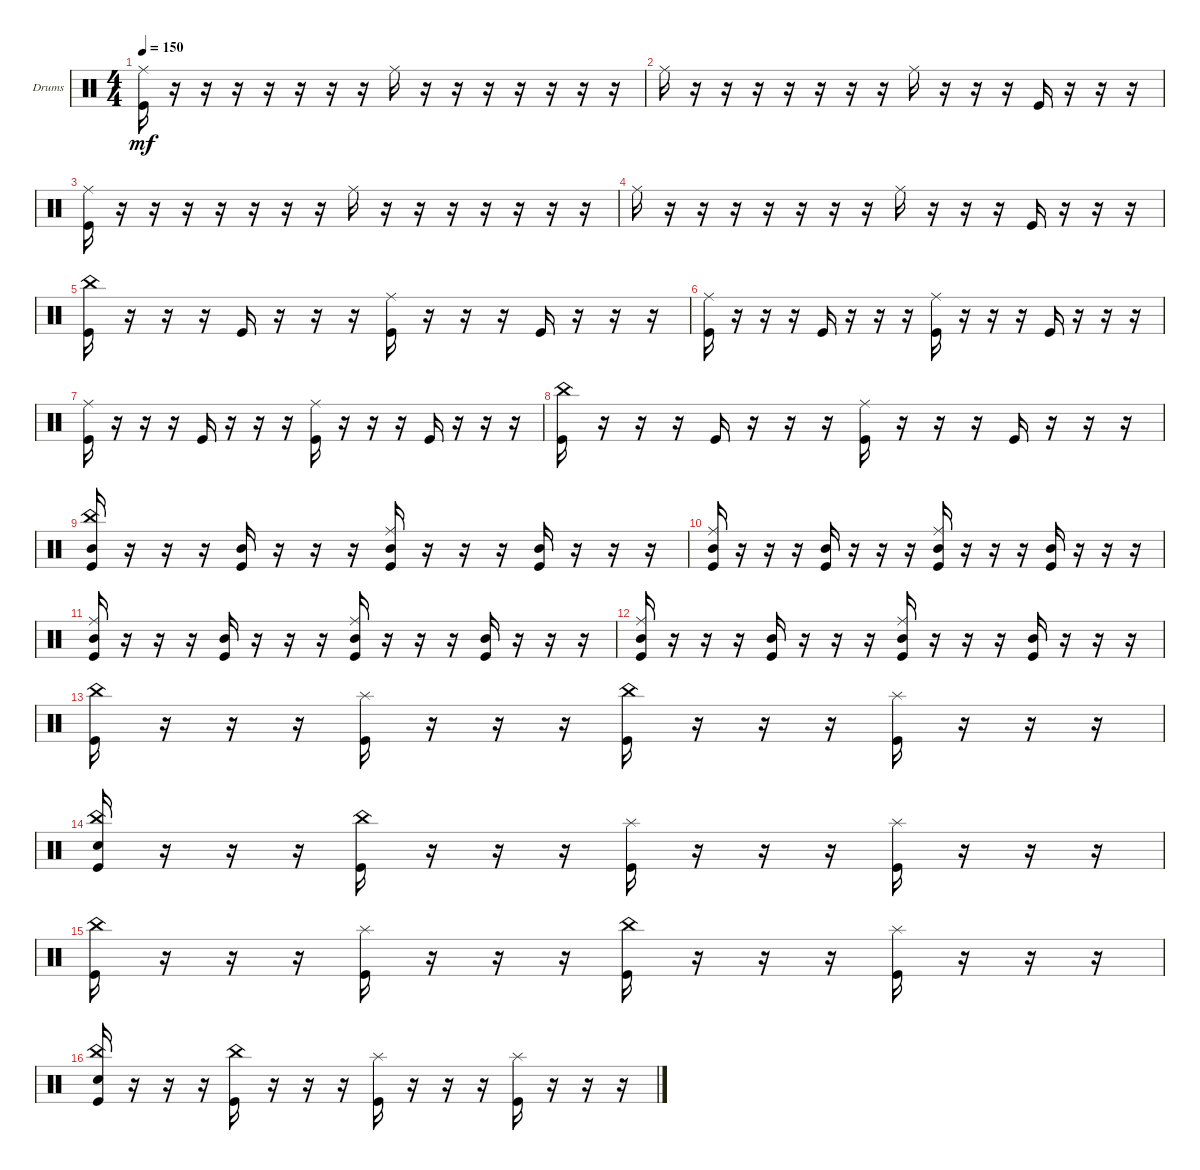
\defaultSystemsLayout 4
\bracketExtendMode groupsimilarinstruments
\firstSystemTrackNameOrientation horizontal
\otherSystemsTrackNameOrientation horizontal
\track ("Drumkit" "Drums") {instrument percussion}
\staff {score}
\articulation defaults
\ts (4 4)
\tempo 150
\clef neutral
\ks c
("Kick (hit)" "Ride (middle)").16{dy mf} r.16 r.16 r.16 r.16 r.16 r.16 r.16 "Ride (middle)".16 r.16 r.16 r.16 r.16 r.16 r.16 r.16 |
"Ride (middle)".16 r.16 r.16 r.16 r.16 r.16 r.16 r.16 "Ride (middle)".16 r.16 r.16 r.16 "Kick (hit)".16 r.16 r.16 r.16 |
("Kick (hit)" "Ride (middle)").16 r.16 r.16 r.16 r.16 r.16 r.16 r.16 "Ride (middle)".16 r.16 r.16 r.16 r.16 r.16 r.16 r.16 |
"Ride (middle)".16 r.16 r.16 r.16 r.16 r.16 r.16 r.16 "Ride (middle)".16 r.16 r.16 r.16 "Kick (hit)".16 r.16 r.16 r.16 |
("Kick (hit)" "China (hit)").16 r.16 r.16 r.16 "Kick (hit)".16 r.16 r.16 r.16 ("Kick (hit)" "Ride (middle)").16 r.16 r.16 r.16 "Kick (hit)".16 r.16 r.16 r.16 |
("Kick (hit)" "Ride (middle)").16 r.16 r.16 r.16 "Kick (hit)".16 r.16 r.16 r.16 ("Kick (hit)" "Ride (middle)").16 r.16 r.16 r.16 "Kick (hit)".16 r.16 r.16 r.16 |
("Kick (hit)" "Ride (middle)").16 r.16 r.16 r.16 "Kick (hit)".16 r.16 r.16 r.16 ("Kick (hit)" "Ride (middle)").16 r.16 r.16 r.16 "Kick (hit)".16 r.16 r.16 r.16 |
("Kick (hit)" "China (hit)").16 r.16 r.16 r.16 "Kick (hit)".16 r.16 r.16 r.16 ("Kick (hit)" "Ride (middle)").16 r.16 r.16 r.16 "Kick (hit)".16 r.16 r.16 r.16 |
("Kick (hit)" "China (hit)" "Mid Tom (hit)").16 r.16 r.16 r.16 ("Kick (hit)" "Mid Tom (hit)").16 r.16 r.16 r.16 ("Kick (hit)" "Ride (middle)" "Mid Tom (hit)").16 r.16 r.16 r.16 ("Kick (hit)" "Mid Tom (hit)").16 r.16 r.16 r.16 |
("Kick (hit)" "Ride (middle)" "Mid Tom (hit)").16 r.16 r.16 r.16 ("Kick (hit)" "Mid Tom (hit)").16 r.16 r.16 r.16 ("Kick (hit)" "Ride (middle)" "Mid Tom (hit)").16 r.16 r.16 r.16 ("Kick (hit)" "Mid Tom (hit)").16 r.16 r.16 r.16 |
("Kick (hit)" "Ride (middle)" "Mid Tom (hit)").16 r.16 r.16 r.16 ("Kick (hit)" "Mid Tom (hit)").16 r.16 r.16 r.16 ("Kick (hit)" "Ride (middle)" "Mid Tom (hit)").16 r.16 r.16 r.16 ("Kick (hit)" "Mid Tom (hit)").16 r.16 r.16 r.16 |
("Kick (hit)" "Ride (middle)" "Mid Tom (hit)").16 r.16 r.16 r.16 ("Kick (hit)" "Mid Tom (hit)").16 r.16 r.16 r.16 ("Kick (hit)" "Ride (middle)" "Mid Tom (hit)").16 r.16 r.16 r.16 ("Kick (hit)" "Mid Tom (hit)").16 r.16 r.16 r.16 |
("Kick (hit)" "China (hit)").16 r.16 r.16 r.16 ("Kick (hit)" "Splash (hit)").16 r.16 r.16 r.16 ("Kick (hit)" "China (hit)").16 r.16 r.16 r.16 ("Kick (hit)" "Splash (hit)").16 r.16 r.16 r.16 |
("Kick (hit)" "China (hit)" "Snare (hit) 2").16 r.16 r.16 r.16 ("Kick (hit)" "China (hit)").16 r.16 r.16 r.16 ("Kick (hit)" "Splash (hit)").16 r.16 r.16 r.16 ("Kick (hit)" "Splash (hit)").16 r.16 r.16 r.16 |
("Kick (hit)" "China (hit)").16 r.16 r.16 r.16 ("Kick (hit)" "Splash (hit)").16 r.16 r.16 r.16 ("Kick (hit)" "China (hit)").16 r.16 r.16 r.16 ("Kick (hit)" "Splash (hit)").16 r.16 r.16 r.16 |
("Kick (hit)" "China (hit)" "Snare (hit) 2").16 r.16 r.16 r.16 ("Kick (hit)" "China (hit)").16 r.16 r.16 r.16 ("Kick (hit)" "Splash (hit)").16 r.16 r.16 r.16 ("Kick (hit)" "Splash (hit)").16 r.16 r.16 r.16
